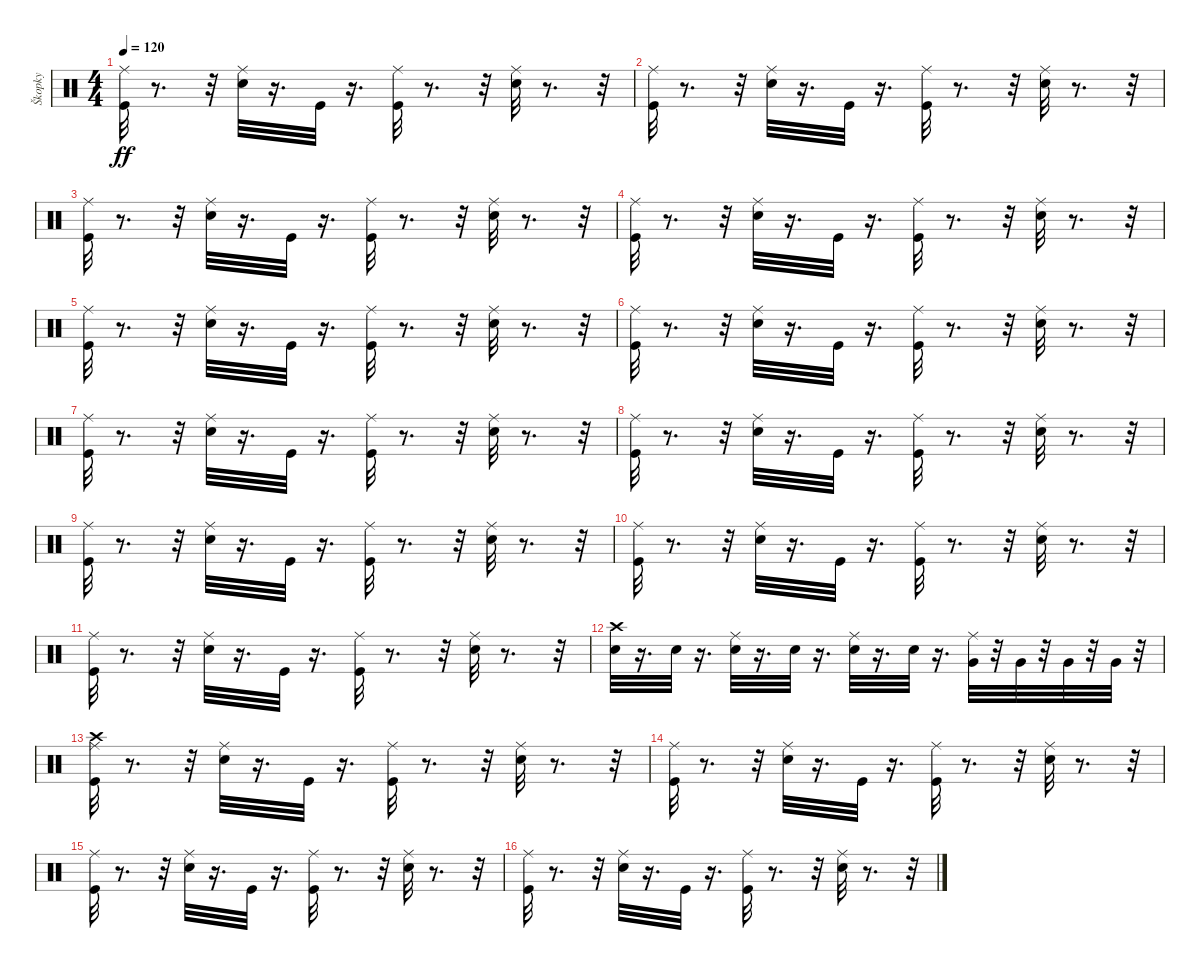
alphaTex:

\track ("Škopky" "Škopky") {instrument percussion}
\staff {score}
\articulation defaults
\ts (4 4)
\tempo 120
\clef neutral
\ks c
("Kick (hit)" "Ride (middle)").32{dy ff} r.8{d} r.32 ("Snare (hit) 2" "Ride (middle)").32 r.16{d} "Kick (hit)".32 r.16{d} ("Kick (hit)" "Ride (middle)").32 r.8{d} r.32 ("Snare (hit) 2" "Ride (middle)").32 r.8{d} r.32 |
("Kick (hit)" "Ride (middle)").32 r.8{d} r.32 ("Snare (hit) 2" "Ride (middle)").32 r.16{d} "Kick (hit)".32 r.16{d} ("Kick (hit)" "Ride (middle)").32 r.8{d} r.32 ("Snare (hit) 2" "Ride (middle)").32 r.8{d} r.32 |
("Kick (hit)" "Ride (middle)").32 r.8{d} r.32 ("Snare (hit) 2" "Ride (middle)").32 r.16{d} "Kick (hit)".32 r.16{d} ("Kick (hit)" "Ride (middle)").32 r.8{d} r.32 ("Snare (hit) 2" "Ride (middle)").32 r.8{d} r.32 |
("Kick (hit)" "Ride (middle)").32 r.8{d} r.32 ("Snare (hit) 2" "Ride (middle)").32 r.16{d} "Kick (hit)".32 r.16{d} ("Kick (hit)" "Ride (middle)").32 r.8{d} r.32 ("Snare (hit) 2" "Ride (middle)").32 r.8{d} r.32 |
("Kick (hit)" "Ride (middle)").32 r.8{d} r.32 ("Snare (hit) 2" "Ride (middle)").32 r.16{d} "Kick (hit)".32 r.16{d} ("Kick (hit)" "Ride (middle)").32 r.8{d} r.32 ("Snare (hit) 2" "Ride (middle)").32 r.8{d} r.32 |
("Kick (hit)" "Ride (middle)").32 r.8{d} r.32 ("Snare (hit) 2" "Ride (middle)").32 r.16{d} "Kick (hit)".32 r.16{d} ("Kick (hit)" "Ride (middle)").32 r.8{d} r.32 ("Snare (hit) 2" "Ride (middle)").32 r.8{d} r.32 |
("Kick (hit)" "Ride (middle)").32 r.8{d} r.32 ("Snare (hit) 2" "Ride (middle)").32 r.16{d} "Kick (hit)".32 r.16{d} ("Kick (hit)" "Ride (middle)").32 r.8{d} r.32 ("Snare (hit) 2" "Ride (middle)").32 r.8{d} r.32 |
("Kick (hit)" "Ride (middle)").32 r.8{d} r.32 ("Snare (hit) 2" "Ride (middle)").32 r.16{d} "Kick (hit)".32 r.16{d} ("Kick (hit)" "Ride (middle)").32 r.8{d} r.32 ("Snare (hit) 2" "Ride (middle)").32 r.8{d} r.32 |
("Kick (hit)" "Ride (middle)").32 r.8{d} r.32 ("Snare (hit) 2" "Ride (middle)").32 r.16{d} "Kick (hit)".32 r.16{d} ("Kick (hit)" "Ride (middle)").32 r.8{d} r.32 ("Snare (hit) 2" "Ride (middle)").32 r.8{d} r.32 |
("Kick (hit)" "Ride (middle)").32 r.8{d} r.32 ("Snare (hit) 2" "Ride (middle)").32 r.16{d} "Kick (hit)".32 r.16{d} ("Kick (hit)" "Ride (middle)").32 r.8{d} r.32 ("Snare (hit) 2" "Ride (middle)").32 r.8{d} r.32 |
("Kick (hit)" "Ride (middle)").32 r.8{d} r.32 ("Snare (hit) 2" "Ride (middle)").32 r.16{d} "Kick (hit)".32 r.16{d} ("Kick (hit)" "Ride (middle)").32 r.8{d} r.32 ("Snare (hit) 2" "Ride (middle)").32 r.8{d} r.32 |
("Snare (hit) 2" "Crash high (hit)").32 r.16{d} "Snare (hit) 2".32 r.16{d} ("Snare (hit) 2" "Ride (middle)").32 r.16{d} "Snare (hit) 2".32 r.16{d} ("Snare (hit) 2" "Ride (middle)").32 r.16{d} "Snare (hit) 2".32 r.16{d} ("Very Low Tom (hit)" "Ride (middle)").32 r.32 "Very Low Tom (hit)".32 r.32 "Very Low Tom (hit)".32 r.32 "Very Low Tom (hit)".32 r.32 |
("Kick (hit)" "Crash high (hit)" "Ride (middle)").32 r.8{d} r.32 ("Snare (hit) 2" "Ride (middle)").32 r.16{d} "Kick (hit)".32 r.16{d} ("Kick (hit)" "Ride (middle)").32 r.8{d} r.32 ("Snare (hit) 2" "Ride (middle)").32 r.8{d} r.32 |
("Kick (hit)" "Ride (middle)").32 r.8{d} r.32 ("Snare (hit) 2" "Ride (middle)").32 r.16{d} "Kick (hit)".32 r.16{d} ("Kick (hit)" "Ride (middle)").32 r.8{d} r.32 ("Snare (hit) 2" "Ride (middle)").32 r.8{d} r.32 |
("Kick (hit)" "Ride (middle)").32 r.8{d} r.32 ("Snare (hit) 2" "Ride (middle)").32 r.16{d} "Kick (hit)".32 r.16{d} ("Kick (hit)" "Ride (middle)").32 r.8{d} r.32 ("Snare (hit) 2" "Ride (middle)").32 r.8{d} r.32 |
("Kick (hit)" "Ride (middle)").32 r.8{d} r.32 ("Snare (hit) 2" "Ride (middle)").32 r.16{d} "Kick (hit)".32 r.16{d} ("Kick (hit)" "Ride (middle)").32 r.8{d} r.32 ("Snare (hit) 2" "Ride (middle)").32 r.8{d} r.32
